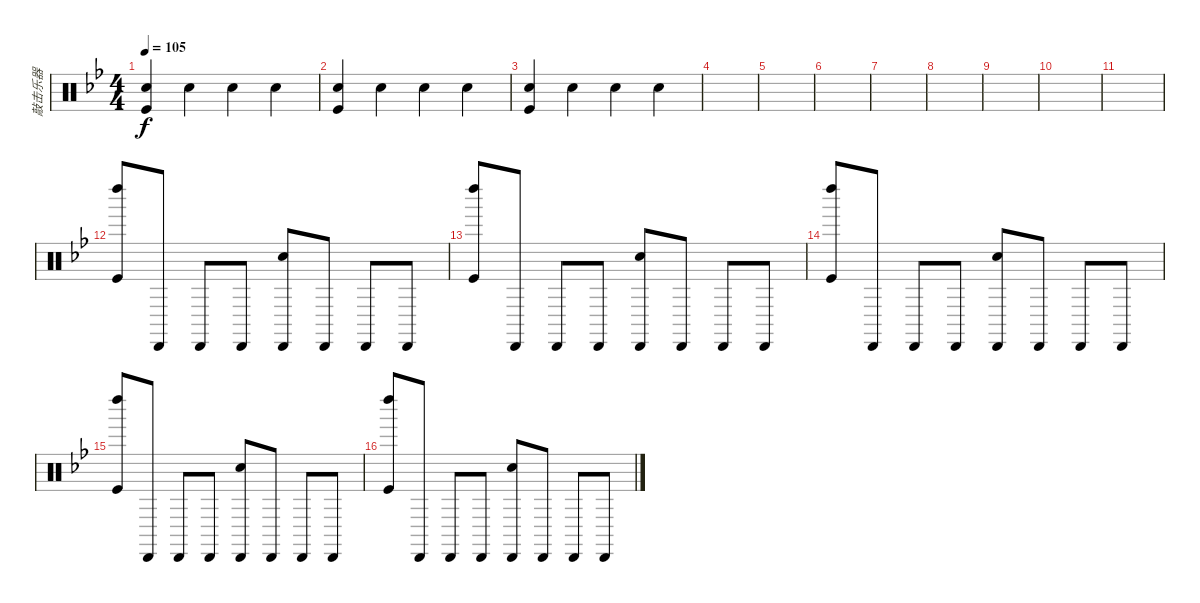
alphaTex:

\track ("敲击乐器" "敲击乐器") {instrument percussion}
\staff {score}
\articulation defaults
\ts (4 4)
\tempo 105
\clef neutral
\ks bb
("Snare (hit) 2" "Kick (hit)").4{dy f} "Snare (hit) 2".4 "Snare (hit) 2".4 "Snare (hit) 2".4 |
("Snare (hit) 2" "Kick (hit)").4 "Snare (hit) 2".4 "Snare (hit) 2".4 "Snare (hit) 2".4 |
("Snare (hit) 2" "Kick (hit)").4 "Snare (hit) 2".4 "Snare (hit) 2".4 "Snare (hit) 2".4 |
|
|
|
|
|
|
|
|
("Left Maraca (hit)" "Kick (hit)").8 "Cabasa (hit)".8 "Cabasa (hit)".8 "Cabasa (hit)".8 ("Snare (hit) 2" "Cabasa (hit)").8 "Cabasa (hit)".8 "Cabasa (hit)".8 "Cabasa (hit)".8 |
("Left Maraca (hit)" "Kick (hit)").8 "Cabasa (hit)".8 "Cabasa (hit)".8 "Cabasa (hit)".8 ("Snare (hit) 2" "Cabasa (hit)").8 "Cabasa (hit)".8 "Cabasa (hit)".8 "Cabasa (hit)".8 |
("Left Maraca (hit)" "Kick (hit)").8 "Cabasa (hit)".8 "Cabasa (hit)".8 "Cabasa (hit)".8 ("Snare (hit) 2" "Cabasa (hit)").8 "Cabasa (hit)".8 "Cabasa (hit)".8 "Cabasa (hit)".8 |
("Left Maraca (hit)" "Kick (hit)").8 "Cabasa (hit)".8 "Cabasa (hit)".8 "Cabasa (hit)".8 ("Snare (hit) 2" "Cabasa (hit)").8 "Cabasa (hit)".8 "Cabasa (hit)".8 "Cabasa (hit)".8 |
("Left Maraca (hit)" "Kick (hit)").8 "Cabasa (hit)".8 "Cabasa (hit)".8 "Cabasa (hit)".8 ("Snare (hit) 2" "Cabasa (hit)").8 "Cabasa (hit)".8 "Cabasa (hit)".8 "Cabasa (hit)".8
